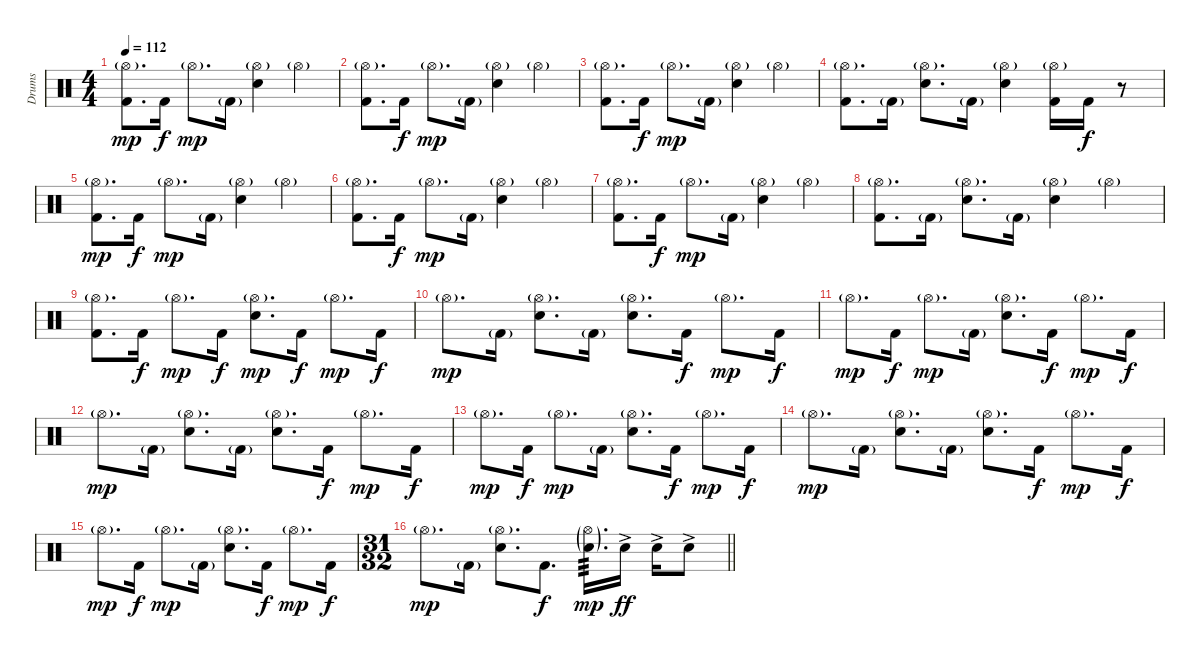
\track ("Drums" "Drums") {instrument percussion}
\staff {score}
\articulation defaults
\ts (4 4)
\tempo 112
\clef neutral
\ks c
("Hi-Hat (open)"{g} "Kick (hit) 2").8{d dy mp} "Kick (hit) 2".16{dy f} "Hi-Hat (open)"{g}.8{d dy mp} "Kick (hit) 2"{g}.16 ("Hi-Hat (open)"{g} "Snare (hit) 2").4 "Hi-Hat (open)"{g}.4 |
("Hi-Hat (open)"{g} "Kick (hit) 2").8{d} "Kick (hit) 2".16{dy f} "Hi-Hat (open)"{g}.8{d dy mp} "Kick (hit) 2"{g}.16 ("Hi-Hat (open)"{g} "Snare (hit) 2").4 "Hi-Hat (open)"{g}.4 |
("Hi-Hat (open)"{g} "Kick (hit) 2").8{d} "Kick (hit) 2".16{dy f} "Hi-Hat (open)"{g}.8{d dy mp} "Kick (hit) 2"{g}.16 ("Hi-Hat (open)"{g} "Snare (hit) 2").4 "Hi-Hat (open)"{g}.4 |
("Hi-Hat (open)"{g} "Kick (hit) 2").8{d} "Kick (hit) 2"{g}.16 ("Hi-Hat (open)"{g} "Snare (hit) 2").8{d} "Kick (hit) 2"{g}.16 ("Hi-Hat (open)"{g} "Snare (hit) 2").4 ("Hi-Hat (open)"{g} "Kick (hit) 2").16 "Kick (hit) 2".16{dy f} r.8 |
("Hi-Hat (open)"{g} "Kick (hit) 2").8{d dy mp} "Kick (hit) 2".16{dy f} "Hi-Hat (open)"{g}.8{d dy mp} "Kick (hit) 2"{g}.16 ("Hi-Hat (open)"{g} "Snare (hit) 2").4 "Hi-Hat (open)"{g}.4 |
("Hi-Hat (open)"{g} "Kick (hit) 2").8{d} "Kick (hit) 2".16{dy f} "Hi-Hat (open)"{g}.8{d dy mp} "Kick (hit) 2"{g}.16 ("Hi-Hat (open)"{g} "Snare (hit) 2").4 "Hi-Hat (open)"{g}.4 |
("Hi-Hat (open)"{g} "Kick (hit) 2").8{d} "Kick (hit) 2".16{dy f} "Hi-Hat (open)"{g}.8{d dy mp} "Kick (hit) 2"{g}.16 ("Hi-Hat (open)"{g} "Snare (hit) 2").4 "Hi-Hat (open)"{g}.4 |
("Hi-Hat (open)"{g} "Kick (hit) 2").8{d} "Kick (hit) 2"{g}.16 ("Hi-Hat (open)"{g} "Snare (hit) 2").8{d} "Kick (hit) 2"{g}.16 ("Hi-Hat (open)"{g} "Snare (hit) 2").4 "Hi-Hat (open)"{g}.4 |
("Hi-Hat (open)"{g} "Kick (hit) 2").8{d} "Kick (hit) 2".16{dy f} "Hi-Hat (open)"{g}.8{d dy mp} "Kick (hit) 2".16{dy f} ("Hi-Hat (open)"{g} "Snare (hit) 2").8{d dy mp} "Kick (hit) 2".16{dy f} "Hi-Hat (open)"{g}.8{d dy mp} "Kick (hit) 2".16{dy f} |
"Hi-Hat (open)"{g}.8{d dy mp} "Kick (hit) 2"{g}.16 ("Hi-Hat (open)"{g} "Snare (hit) 2").8{d} "Kick (hit) 2"{g}.16 ("Hi-Hat (open)"{g} "Snare (hit) 2").8{d} "Kick (hit) 2".16{dy f} "Hi-Hat (open)"{g}.8{d dy mp} "Kick (hit) 2".16{dy f} |
"Hi-Hat (open)"{g}.8{d dy mp} "Kick (hit) 2".16{dy f} "Hi-Hat (open)"{g}.8{d dy mp} "Kick (hit) 2"{g}.16 ("Hi-Hat (open)"{g} "Snare (hit) 2").8{d} "Kick (hit) 2".16{dy f} "Hi-Hat (open)"{g}.8{d dy mp} "Kick (hit) 2".16{dy f} |
"Hi-Hat (open)"{g}.8{d dy mp} "Kick (hit) 2"{g}.16 ("Hi-Hat (open)"{g} "Snare (hit) 2").8{d} "Kick (hit) 2"{g}.16 ("Hi-Hat (open)"{g} "Snare (hit) 2").8{d} "Kick (hit) 2".16{dy f} "Hi-Hat (open)"{g}.8{d dy mp} "Kick (hit) 2".16{dy f} |
"Hi-Hat (open)"{g}.8{d dy mp} "Kick (hit) 2".16{dy f} "Hi-Hat (open)"{g}.8{d dy mp} "Kick (hit) 2"{g}.16 ("Hi-Hat (open)"{g} "Snare (hit) 2").8{d} "Kick (hit) 2".16{dy f} "Hi-Hat (open)"{g}.8{d dy mp} "Kick (hit) 2".16{dy f} |
"Hi-Hat (open)"{g}.8{d dy mp} "Kick (hit) 2"{g}.16 ("Hi-Hat (open)"{g} "Snare (hit) 2").8{d} "Kick (hit) 2"{g}.16 ("Hi-Hat (open)"{g} "Snare (hit) 2").8{d} "Kick (hit) 2".16{dy f} "Hi-Hat (open)"{g}.8{d dy mp} "Kick (hit) 2".16{dy f} |
"Hi-Hat (open)"{g}.8{d dy mp} "Kick (hit) 2".16{dy f} "Hi-Hat (open)"{g}.8{d dy mp} "Kick (hit) 2"{g}.16 ("Hi-Hat (open)"{g} "Snare (hit) 2").8{d} "Kick (hit) 2".16{dy f} "Hi-Hat (open)"{g}.8{d dy mp} "Kick (hit) 2".16{dy f} |
\ts (31 32)
\barLineRight lightlight "Hi-Hat (open)"{g}.8{d dy mp} "Kick (hit) 2"{g}.16
("Hi-Hat (open)"{g} "Snare (hit) 2").8{d} "Kick (hit) 2".8{d dy f} ("Hi-Hat (open)"{g} "Snare (hit) 2"{g}).16{d tp 3 dy mp} "Snare (hit) 2"{ac}.16{dy ff} "Snare (hit) 2"{ac}.16 "Snare (hit) 2"{ac}.8
